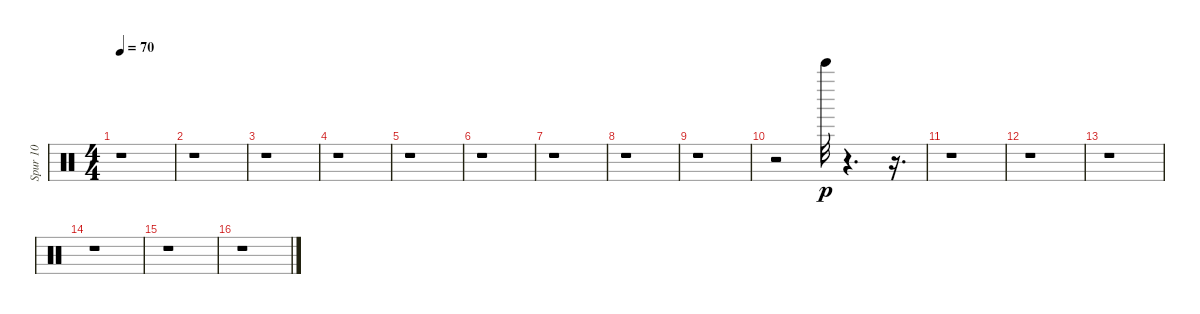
\track ("Spur 10" "Spur 10") {instrument percussion}
\staff {score}
\articulation defaults
\ts (4 4)
\tempo 70
\clef neutral
\ks c
r.1{dy p} |
r.1 |
r.1 |
r.1 |
r.1 |
r.1 |
r.1 |
r.1 |
r.1 |
r.2 "Bell Tree (hit)".32{balance 8} r.4{d} r.16{d} |
r.1 |
r.1 |
r.1 |
r.1 |
r.1 |
r.1
